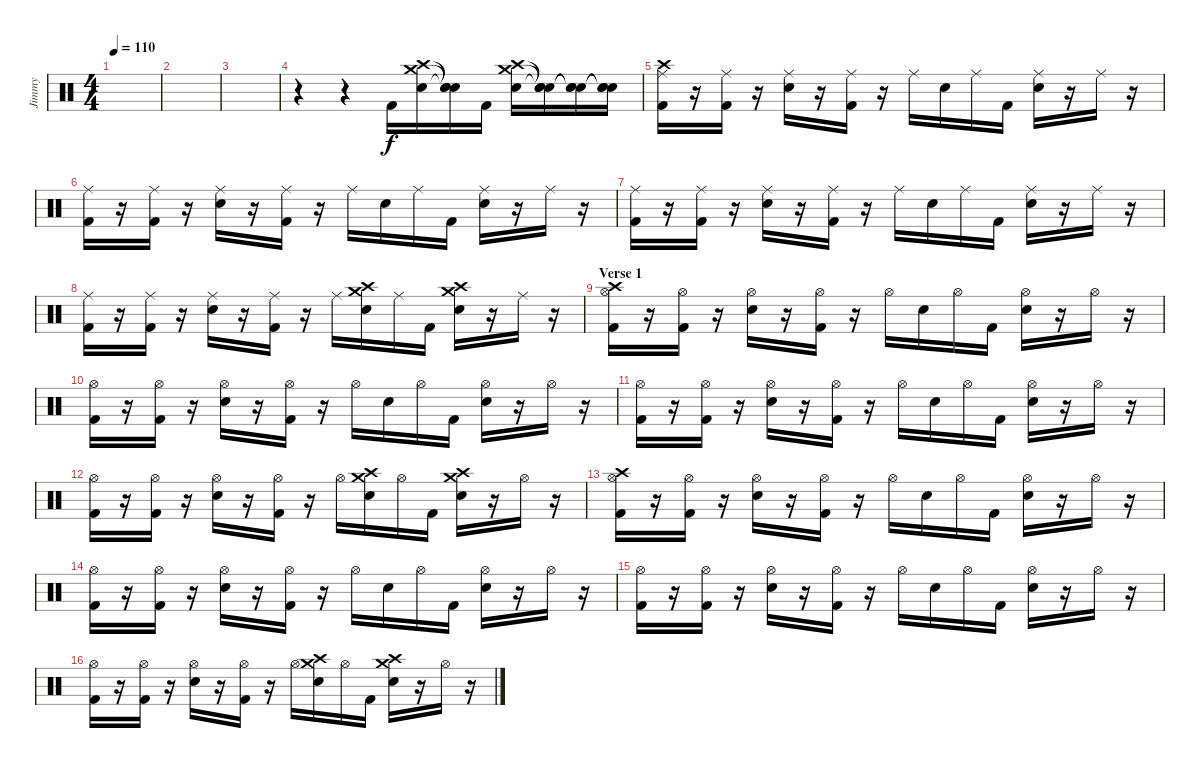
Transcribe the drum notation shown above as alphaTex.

\track ("Jimmy" "Jimmy") {instrument percussion}
\staff {score}
\articulation defaults
\ts (4 4)
\tempo 110
\clef neutral
\ks c
|
|
|
r.4 r.4 "Kick (hit) 2".16 ("Crash medium (hit)" "Crash high (hit)" "Electric Snare (hit)").16 ("Snare (hit)"{t} "Snare (hit)"{t} "Snare (hit)"{t}).16 "Kick (hit) 2".16 ("Crash medium (hit)" "Crash high (hit)" "Electric Snare (hit)").16 ("Snare (hit)"{t} "Snare (hit)"{t} "Snare (hit)"{t}).16 ("Snare (hit)"{t} "Snare (hit)"{t} "Snare (hit)"{t}).16 ("Snare (hit)"{t} "Snare (hit)"{t} "Snare (hit)"{t}).16 |
("Crash high (hit)" "Ride (middle)" "Kick (hit) 2").16 r.16 ("Ride (middle)" "Kick (hit) 2").16 r.16 ("Ride (middle)" "Electric Snare (hit)").16 r.16 ("Ride (middle)" "Kick (hit) 2").16 r.16 "Ride (middle)".16 "Electric Snare (hit)".16 "Ride (middle)".16 "Kick (hit) 2".16 ("Ride (middle)" "Electric Snare (hit)").16 r.16 "Ride (middle)".16 r.16 |
("Ride (middle)" "Kick (hit) 2").16 r.16 ("Ride (middle)" "Kick (hit) 2").16 r.16 ("Ride (middle)" "Electric Snare (hit)").16 r.16 ("Ride (middle)" "Kick (hit) 2").16 r.16 "Ride (middle)".16 "Electric Snare (hit)".16 "Ride (middle)".16 "Kick (hit) 2".16 ("Ride (middle)" "Electric Snare (hit)").16 r.16 "Ride (middle)".16 r.16 |
("Ride (middle)" "Kick (hit) 2").16 r.16 ("Ride (middle)" "Kick (hit) 2").16 r.16 ("Ride (middle)" "Electric Snare (hit)").16 r.16 ("Ride (middle)" "Kick (hit) 2").16 r.16 "Ride (middle)".16 "Electric Snare (hit)".16 "Ride (middle)".16 "Kick (hit) 2".16 ("Ride (middle)" "Electric Snare (hit)").16 r.16 "Ride (middle)".16 r.16 |
("Ride (middle)" "Kick (hit) 2").16 r.16 ("Ride (middle)" "Kick (hit) 2").16 r.16 ("Ride (middle)" "Electric Snare (hit)").16 r.16 ("Ride (middle)" "Kick (hit) 2").16 r.16 "Ride (middle)".16 ("Crash medium (hit)" "Crash high (hit)" "Electric Snare (hit)").16 "Ride (middle)".16 "Kick (hit) 2".16 ("Crash medium (hit)" "Crash high (hit)" "Electric Snare (hit)").16 r.16 "Ride (middle)".16 r.16 |
\section ("" "Verse 1")
("Crash high (hit)" "Hi-Hat (open)" "Kick (hit) 2").16 r.16 ("Hi-Hat (open)" "Kick (hit) 2").16 r.16 ("Hi-Hat (open)" "Electric Snare (hit)").16 r.16 ("Hi-Hat (open)" "Kick (hit) 2").16 r.16 "Hi-Hat (open)".16 "Electric Snare (hit)".16 "Hi-Hat (open)".16 "Kick (hit) 2".16 ("Hi-Hat (open)" "Electric Snare (hit)").16 r.16 "Hi-Hat (open)".16 r.16 |
("Hi-Hat (open)" "Kick (hit) 2").16 r.16 ("Hi-Hat (open)" "Kick (hit) 2").16 r.16 ("Hi-Hat (open)" "Electric Snare (hit)").16 r.16 ("Hi-Hat (open)" "Kick (hit) 2").16 r.16 "Hi-Hat (open)".16 "Electric Snare (hit)".16 "Hi-Hat (open)".16 "Kick (hit) 2".16 ("Hi-Hat (open)" "Electric Snare (hit)").16 r.16 "Hi-Hat (open)".16 r.16 |
("Hi-Hat (open)" "Kick (hit) 2").16 r.16 ("Hi-Hat (open)" "Kick (hit) 2").16 r.16 ("Hi-Hat (open)" "Electric Snare (hit)").16 r.16 ("Hi-Hat (open)" "Kick (hit) 2").16 r.16 "Hi-Hat (open)".16 "Electric Snare (hit)".16 "Hi-Hat (open)".16 "Kick (hit) 2".16 ("Hi-Hat (open)" "Electric Snare (hit)").16 r.16 "Hi-Hat (open)".16 r.16 |
("Hi-Hat (open)" "Kick (hit) 2").16 r.16 ("Hi-Hat (open)" "Kick (hit) 2").16 r.16 ("Hi-Hat (open)" "Electric Snare (hit)").16 r.16 ("Hi-Hat (open)" "Kick (hit) 2").16 r.16 "Hi-Hat (open)".16 ("Crash medium (hit)" "Crash high (hit)" "Electric Snare (hit)").16 "Hi-Hat (open)".16 "Kick (hit) 2".16 ("Crash medium (hit)" "Crash high (hit)" "Electric Snare (hit)").16 r.16 "Hi-Hat (open)".16 r.16 |
("Crash high (hit)" "Hi-Hat (open)" "Kick (hit) 2").16 r.16 ("Hi-Hat (open)" "Kick (hit) 2").16 r.16 ("Hi-Hat (open)" "Electric Snare (hit)").16 r.16 ("Hi-Hat (open)" "Kick (hit) 2").16 r.16 "Hi-Hat (open)".16 "Electric Snare (hit)".16 "Hi-Hat (open)".16 "Kick (hit) 2".16 ("Hi-Hat (open)" "Electric Snare (hit)").16 r.16 "Hi-Hat (open)".16 r.16 |
("Hi-Hat (open)" "Kick (hit) 2").16 r.16 ("Hi-Hat (open)" "Kick (hit) 2").16 r.16 ("Hi-Hat (open)" "Electric Snare (hit)").16 r.16 ("Hi-Hat (open)" "Kick (hit) 2").16 r.16 "Hi-Hat (open)".16 "Electric Snare (hit)".16 "Hi-Hat (open)".16 "Kick (hit) 2".16 ("Hi-Hat (open)" "Electric Snare (hit)").16 r.16 "Hi-Hat (open)".16 r.16 |
("Hi-Hat (open)" "Kick (hit) 2").16 r.16 ("Hi-Hat (open)" "Kick (hit) 2").16 r.16 ("Hi-Hat (open)" "Electric Snare (hit)").16 r.16 ("Hi-Hat (open)" "Kick (hit) 2").16 r.16 "Hi-Hat (open)".16 "Electric Snare (hit)".16 "Hi-Hat (open)".16 "Kick (hit) 2".16 ("Hi-Hat (open)" "Electric Snare (hit)").16 r.16 "Hi-Hat (open)".16 r.16 |
("Hi-Hat (open)" "Kick (hit) 2").16 r.16 ("Hi-Hat (open)" "Kick (hit) 2").16 r.16 ("Hi-Hat (open)" "Electric Snare (hit)").16 r.16 ("Hi-Hat (open)" "Kick (hit) 2").16 r.16 "Hi-Hat (open)".16 ("Crash medium (hit)" "Crash high (hit)" "Electric Snare (hit)").16 "Hi-Hat (open)".16 "Kick (hit) 2".16 ("Crash medium (hit)" "Crash high (hit)" "Electric Snare (hit)").16 r.16 "Hi-Hat (open)".16 r.16
